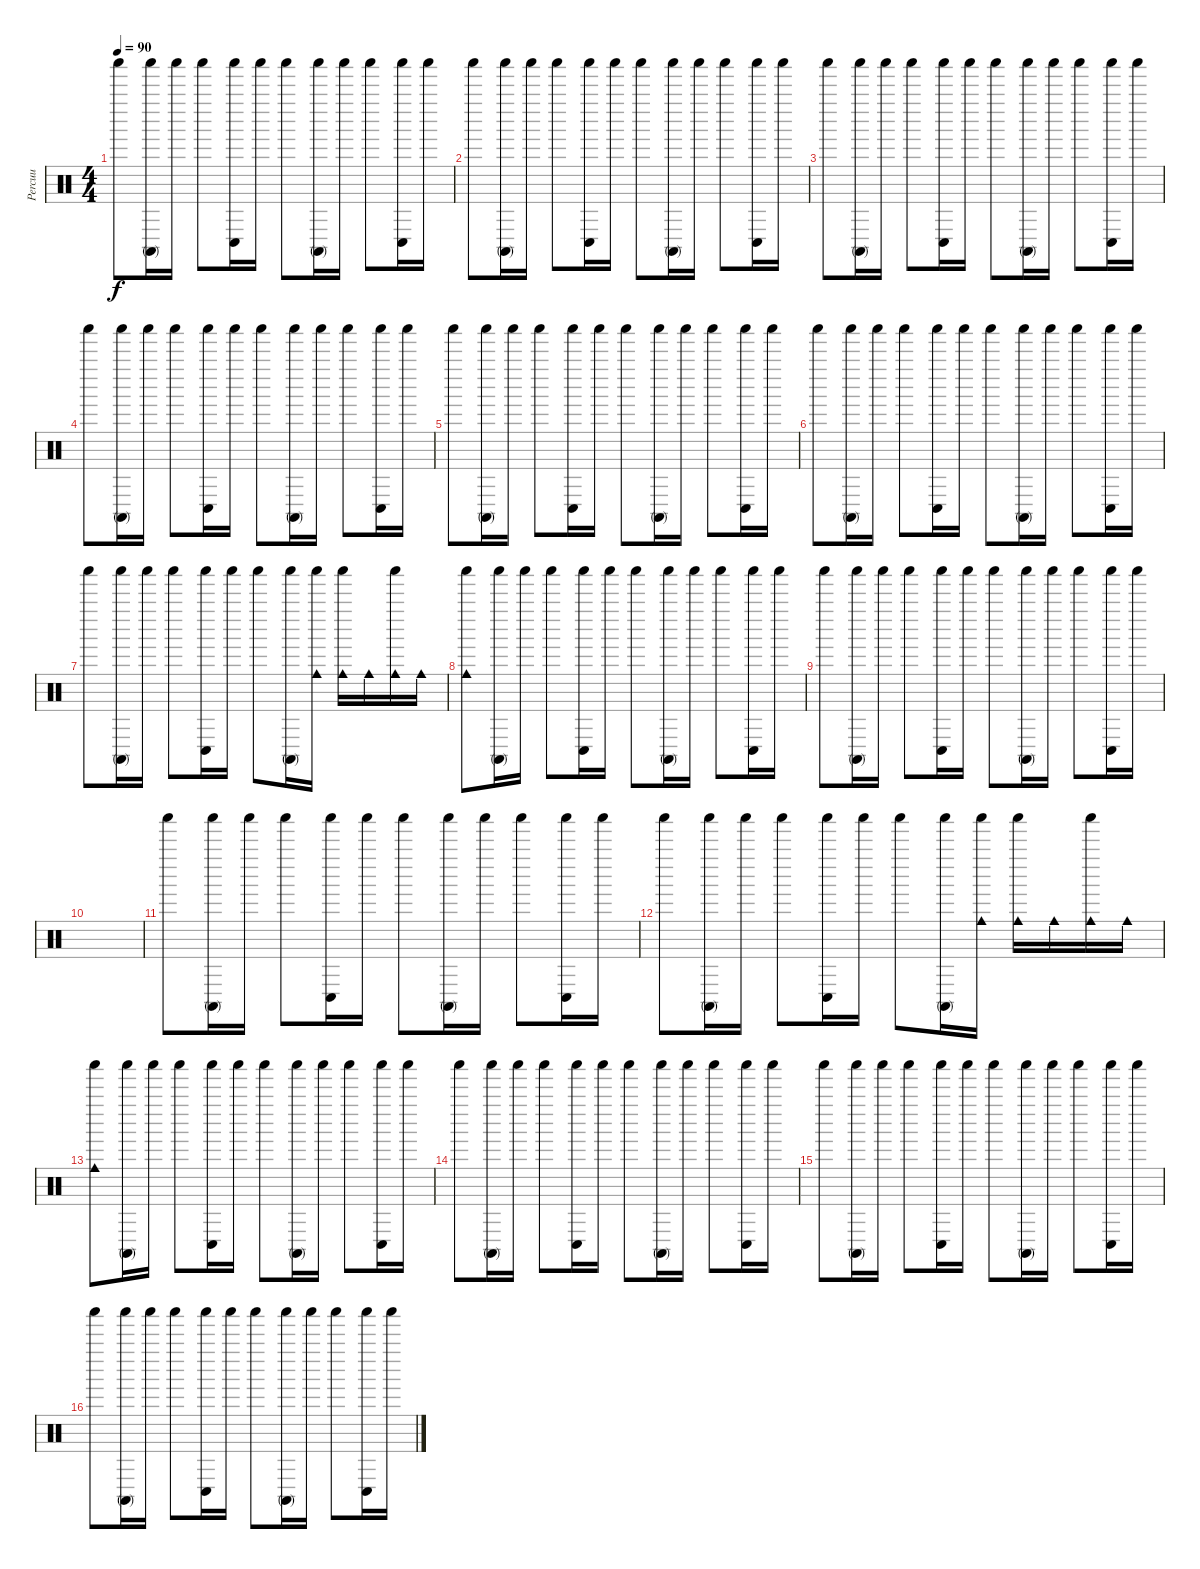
\track ("Percuu" "Percuu") {instrument percussion}
\staff {score}
\articulation defaults
\ts (4 4)
\tempo 90
\clef neutral
\ks c "Shaker (hit)".8{dy f}
("Conga high (mute)" "Shaker (hit)").16 "Shaker (hit)".16 "Shaker (hit)".8 ("Conga low (hit)" "Shaker (hit)").16 "Shaker (hit)".16 "Shaker (hit)".8 ("Conga high (mute)" "Shaker (hit)").16 "Shaker (hit)".16 "Shaker (hit)".8 ("Conga low (hit)" "Shaker (hit)").16 "Shaker (hit)".16 |
"Shaker (hit)".8 ("Conga high (mute)" "Shaker (hit)").16 "Shaker (hit)".16 "Shaker (hit)".8 ("Conga low (hit)" "Shaker (hit)").16 "Shaker (hit)".16 "Shaker (hit)".8 ("Conga high (mute)" "Shaker (hit)").16 "Shaker (hit)".16 "Shaker (hit)".8 ("Conga low (hit)" "Shaker (hit)").16 "Shaker (hit)".16 |
"Shaker (hit)".8 ("Conga high (mute)" "Shaker (hit)").16 "Shaker (hit)".16 "Shaker (hit)".8 ("Conga low (hit)" "Shaker (hit)").16 "Shaker (hit)".16 "Shaker (hit)".8 ("Conga high (mute)" "Shaker (hit)").16 "Shaker (hit)".16 "Shaker (hit)".8 ("Conga low (hit)" "Shaker (hit)").16 "Shaker (hit)".16 |
"Shaker (hit)".8 ("Conga high (mute)" "Shaker (hit)").16 "Shaker (hit)".16 "Shaker (hit)".8 ("Conga low (hit)" "Shaker (hit)").16 "Shaker (hit)".16 "Shaker (hit)".8 ("Conga high (mute)" "Shaker (hit)").16 "Shaker (hit)".16 "Shaker (hit)".8 ("Conga low (hit)" "Shaker (hit)").16 "Shaker (hit)".16 |
"Shaker (hit)".8 ("Conga high (mute)" "Shaker (hit)").16 "Shaker (hit)".16 "Shaker (hit)".8 ("Conga low (hit)" "Shaker (hit)").16 "Shaker (hit)".16 "Shaker (hit)".8 ("Conga high (mute)" "Shaker (hit)").16 "Shaker (hit)".16 "Shaker (hit)".8 ("Conga low (hit)" "Shaker (hit)").16 "Shaker (hit)".16 |
"Shaker (hit)".8 ("Conga high (mute)" "Shaker (hit)").16 "Shaker (hit)".16 "Shaker (hit)".8 ("Conga low (hit)" "Shaker (hit)").16 "Shaker (hit)".16 "Shaker (hit)".8 ("Conga high (mute)" "Shaker (hit)").16 "Shaker (hit)".16 "Shaker (hit)".8 ("Conga low (hit)" "Shaker (hit)").16 "Shaker (hit)".16 |
"Shaker (hit)".8 ("Conga high (mute)" "Shaker (hit)").16 "Shaker (hit)".16 "Shaker (hit)".8 ("Conga low (hit)" "Shaker (hit)").16 "Shaker (hit)".16 "Shaker (hit)".8 ("Conga high (mute)" "Shaker (hit)").16 ("Cowbell medium (hit)" "Shaker (hit)").16 ("Cowbell medium (hit)" "Shaker (hit)").16 "Cowbell medium (hit)".16 ("Cowbell medium (hit)" "Shaker (hit)").16 "Cowbell medium (hit)".16 |
("Cowbell medium (hit)" "Shaker (hit)").8 ("Conga high (mute)" "Shaker (hit)").16 "Shaker (hit)".16 "Shaker (hit)".8 ("Conga low (hit)" "Shaker (hit)").16 "Shaker (hit)".16 "Shaker (hit)".8 ("Conga high (mute)" "Shaker (hit)").16 "Shaker (hit)".16 "Shaker (hit)".8 ("Conga low (hit)" "Shaker (hit)").16 "Shaker (hit)".16 |
"Shaker (hit)".8 ("Conga high (mute)" "Shaker (hit)").16 "Shaker (hit)".16 "Shaker (hit)".8 ("Conga low (hit)" "Shaker (hit)").16 "Shaker (hit)".16 "Shaker (hit)".8 ("Conga high (mute)" "Shaker (hit)").16 "Shaker (hit)".16 "Shaker (hit)".8 ("Conga low (hit)" "Shaker (hit)").16 "Shaker (hit)".16 |
|
"Shaker (hit)".8 ("Conga high (mute)" "Shaker (hit)").16 "Shaker (hit)".16 "Shaker (hit)".8 ("Conga low (hit)" "Shaker (hit)").16 "Shaker (hit)".16 "Shaker (hit)".8 ("Conga high (mute)" "Shaker (hit)").16 "Shaker (hit)".16 "Shaker (hit)".8 ("Conga low (hit)" "Shaker (hit)").16 "Shaker (hit)".16 |
"Shaker (hit)".8 ("Conga high (mute)" "Shaker (hit)").16 "Shaker (hit)".16 "Shaker (hit)".8 ("Conga low (hit)" "Shaker (hit)").16 "Shaker (hit)".16 "Shaker (hit)".8 ("Conga high (mute)" "Shaker (hit)").16 ("Cowbell medium (hit)" "Shaker (hit)").16 ("Cowbell medium (hit)" "Shaker (hit)").16 "Cowbell medium (hit)".16 ("Cowbell medium (hit)" "Shaker (hit)").16 "Cowbell medium (hit)".16 |
("Cowbell medium (hit)" "Shaker (hit)").8 ("Conga high (mute)" "Shaker (hit)").16 "Shaker (hit)".16 "Shaker (hit)".8 ("Conga low (hit)" "Shaker (hit)").16 "Shaker (hit)".16 "Shaker (hit)".8 ("Conga high (mute)" "Shaker (hit)").16 "Shaker (hit)".16 "Shaker (hit)".8 ("Conga low (hit)" "Shaker (hit)").16 "Shaker (hit)".16 |
"Shaker (hit)".8 ("Conga high (mute)" "Shaker (hit)").16 "Shaker (hit)".16 "Shaker (hit)".8 ("Conga low (hit)" "Shaker (hit)").16 "Shaker (hit)".16 "Shaker (hit)".8 ("Conga high (mute)" "Shaker (hit)").16 "Shaker (hit)".16 "Shaker (hit)".8 ("Conga low (hit)" "Shaker (hit)").16 "Shaker (hit)".16 |
"Shaker (hit)".8 ("Conga high (mute)" "Shaker (hit)").16 "Shaker (hit)".16 "Shaker (hit)".8 ("Conga low (hit)" "Shaker (hit)").16 "Shaker (hit)".16 "Shaker (hit)".8 ("Conga high (mute)" "Shaker (hit)").16 "Shaker (hit)".16 "Shaker (hit)".8 ("Conga low (hit)" "Shaker (hit)").16 "Shaker (hit)".16 |
"Shaker (hit)".8 ("Conga high (mute)" "Shaker (hit)").16 "Shaker (hit)".16 "Shaker (hit)".8 ("Conga low (hit)" "Shaker (hit)").16 "Shaker (hit)".16 "Shaker (hit)".8 ("Conga high (mute)" "Shaker (hit)").16 "Shaker (hit)".16 "Shaker (hit)".8 ("Conga low (hit)" "Shaker (hit)").16 "Shaker (hit)".16
